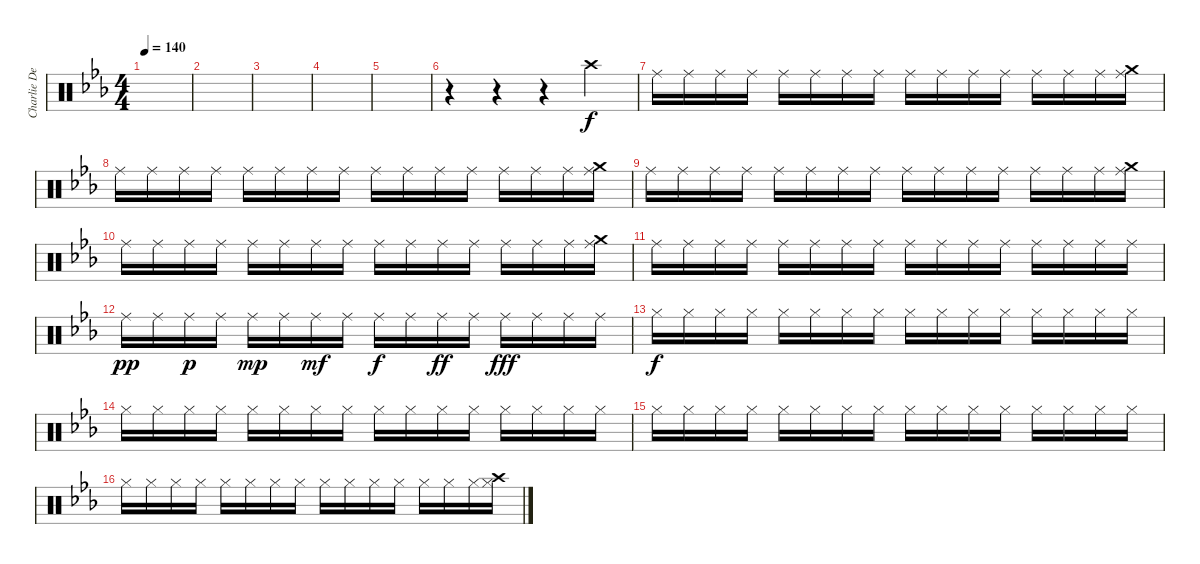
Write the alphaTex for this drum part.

\track ("Charlie Devil" "Charlie De") {instrument percussion}
\staff {score}
\articulation defaults
\ts (4 4)
\tempo 140
\clef neutral
\ks eb
|
|
|
|
|
r.4 r.4 r.4 "Crash high (hit)".4 |
"Ride (middle)".16 "Ride (middle)".16 "Ride (middle)".16 "Ride (middle)".16 "Ride (middle)".16 "Ride (middle)".16 "Ride (middle)".16 "Ride (middle)".16 "Ride (middle)".16 "Ride (middle)".16 "Ride (middle)".16 "Ride (middle)".16 "Ride (middle)".16 "Ride (middle)".16 "Ride (middle)".16 ("Ride (middle)" "Crash medium (hit)").16 |
"Ride (middle)".16 "Ride (middle)".16 "Ride (middle)".16 "Ride (middle)".16 "Ride (middle)".16 "Ride (middle)".16 "Ride (middle)".16 "Ride (middle)".16 "Ride (middle)".16 "Ride (middle)".16 "Ride (middle)".16 "Ride (middle)".16 "Ride (middle)".16 "Ride (middle)".16 "Ride (middle)".16 ("Ride (middle)" "Crash medium (hit)").16 |
"Ride (middle)".16 "Ride (middle)".16 "Ride (middle)".16 "Ride (middle)".16 "Ride (middle)".16 "Ride (middle)".16 "Ride (middle)".16 "Ride (middle)".16 "Ride (middle)".16 "Ride (middle)".16 "Ride (middle)".16 "Ride (middle)".16 "Ride (middle)".16 "Ride (middle)".16 "Ride (middle)".16 ("Ride (middle)" "Crash medium (hit)").16 |
"Ride (middle)".16 "Ride (middle)".16 "Ride (middle)".16 "Ride (middle)".16 "Ride (middle)".16 "Ride (middle)".16 "Ride (middle)".16 "Ride (middle)".16 "Ride (middle)".16 "Ride (middle)".16 "Ride (middle)".16 "Ride (middle)".16 "Ride (middle)".16 "Ride (middle)".16 "Ride (middle)".16 ("Ride (middle)" "Crash medium (hit)").16 |
"Ride (middle)".16 "Ride (middle)".16 "Ride (middle)".16 "Ride (middle)".16 "Ride (middle)".16 "Ride (middle)".16 "Ride (middle)".16 "Ride (middle)".16 "Ride (middle)".16 "Ride (middle)".16 "Ride (middle)".16 "Ride (middle)".16 "Ride (middle)".16 "Ride (middle)".16 "Ride (middle)".16 "Ride (middle)".16 |
"Ride (middle)".16{dy pp} "Ride (middle)".16 "Ride (middle)".16{dy p} "Ride (middle)".16 "Ride (middle)".16{dy mp} "Ride (middle)".16 "Ride (middle)".16{dy mf} "Ride (middle)".16 "Ride (middle)".16{dy f} "Ride (middle)".16 "Ride (middle)".16{dy ff} "Ride (middle)".16 "Ride (middle)".16{dy fff} "Ride (middle)".16 "Ride (middle)".16 "Ride (middle)".16 |
"Hi-Hat (closed)".16{dy f} "Hi-Hat (closed)".16 "Hi-Hat (closed)".16 "Hi-Hat (closed)".16 "Hi-Hat (closed)".16 "Hi-Hat (closed)".16 "Hi-Hat (closed)".16 "Hi-Hat (closed)".16 "Hi-Hat (closed)".16 "Hi-Hat (closed)".16 "Hi-Hat (closed)".16 "Hi-Hat (closed)".16 "Hi-Hat (closed)".16 "Hi-Hat (closed)".16 "Hi-Hat (closed)".16 "Hi-Hat (closed)".16 |
"Hi-Hat (closed)".16 "Hi-Hat (closed)".16 "Hi-Hat (closed)".16 "Hi-Hat (closed)".16 "Hi-Hat (closed)".16 "Hi-Hat (closed)".16 "Hi-Hat (closed)".16 "Hi-Hat (closed)".16 "Hi-Hat (closed)".16 "Hi-Hat (closed)".16 "Hi-Hat (closed)".16 "Hi-Hat (closed)".16 "Hi-Hat (closed)".16 "Hi-Hat (closed)".16 "Hi-Hat (closed)".16 "Hi-Hat (closed)".16 |
"Hi-Hat (closed)".16 "Hi-Hat (closed)".16 "Hi-Hat (closed)".16 "Hi-Hat (closed)".16 "Hi-Hat (closed)".16 "Hi-Hat (closed)".16 "Hi-Hat (closed)".16 "Hi-Hat (closed)".16 "Hi-Hat (closed)".16 "Hi-Hat (closed)".16 "Hi-Hat (closed)".16 "Hi-Hat (closed)".16 "Hi-Hat (closed)".16 "Hi-Hat (closed)".16 "Hi-Hat (closed)".16 "Hi-Hat (closed)".16 |
"Hi-Hat (closed)".16 "Hi-Hat (closed)".16 "Hi-Hat (closed)".16 "Hi-Hat (closed)".16 "Hi-Hat (closed)".16 "Hi-Hat (closed)".16 "Hi-Hat (closed)".16 "Hi-Hat (closed)".16 "Hi-Hat (closed)".16 "Hi-Hat (closed)".16 "Hi-Hat (closed)".16 "Hi-Hat (closed)".16 "Hi-Hat (closed)".16 "Hi-Hat (closed)".16 "Hi-Hat (closed)".16 ("Hi-Hat (closed)" "Crash high (hit)").16
